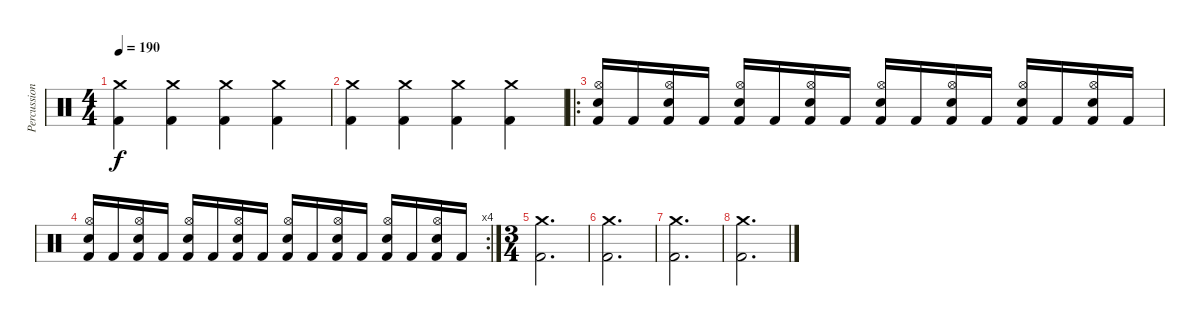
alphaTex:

\track ("Percussion" "Percussion") {instrument percussion}
\staff {score}
\articulation defaults
\ts (4 4)
\tempo 190
\clef neutral
\ks c
("Crash medium (hit)" "Kick (hit) 2").4{dy f} ("Crash medium (hit)" "Kick (hit) 2").4 ("Crash medium (hit)" "Kick (hit) 2").4 ("Crash medium (hit)" "Kick (hit) 2").4 |
("Crash medium (hit)" "Kick (hit) 2").4 ("Crash medium (hit)" "Kick (hit) 2").4 ("Crash medium (hit)" "Kick (hit) 2").4 ("Crash medium (hit)" "Kick (hit) 2").4 |
\ro
("Hi-Hat (open)" "Electric Snare (hit)" "Kick (hit) 2").16 "Kick (hit) 2".16 ("Hi-Hat (open)" "Electric Snare (hit)" "Kick (hit) 2").16 "Kick (hit) 2".16 ("Hi-Hat (open)" "Electric Snare (hit)" "Kick (hit) 2").16 "Kick (hit) 2".16 ("Hi-Hat (open)" "Electric Snare (hit)" "Kick (hit) 2").16 "Kick (hit) 2".16 ("Hi-Hat (open)" "Electric Snare (hit)" "Kick (hit) 2").16 "Kick (hit) 2".16 ("Hi-Hat (open)" "Electric Snare (hit)" "Kick (hit) 2").16 "Kick (hit) 2".16 ("Hi-Hat (open)" "Electric Snare (hit)" "Kick (hit) 2").16 "Kick (hit) 2".16 ("Hi-Hat (open)" "Electric Snare (hit)" "Kick (hit) 2").16 "Kick (hit) 2".16 |
\rc 4
("Hi-Hat (open)" "Electric Snare (hit)" "Kick (hit) 2").16 "Kick (hit) 2".16 ("Hi-Hat (open)" "Electric Snare (hit)" "Kick (hit) 2").16 "Kick (hit) 2".16 ("Hi-Hat (open)" "Electric Snare (hit)" "Kick (hit) 2").16 "Kick (hit) 2".16 ("Hi-Hat (open)" "Electric Snare (hit)" "Kick (hit) 2").16 "Kick (hit) 2".16 ("Hi-Hat (open)" "Electric Snare (hit)" "Kick (hit) 2").16 "Kick (hit) 2".16 ("Hi-Hat (open)" "Electric Snare (hit)" "Kick (hit) 2").16 "Kick (hit) 2".16 ("Hi-Hat (open)" "Electric Snare (hit)" "Kick (hit) 2").16 "Kick (hit) 2".16 ("Hi-Hat (open)" "Electric Snare (hit)" "Kick (hit) 2").16 "Kick (hit) 2".16 |
\ts (3 4)
("Crash medium (hit)" "Kick (hit) 2").2{d} |
("Crash medium (hit)" "Kick (hit) 2").2{d} |
("Crash medium (hit)" "Kick (hit) 2").2{d} |
("Crash medium (hit)" "Kick (hit) 2").2{d}
